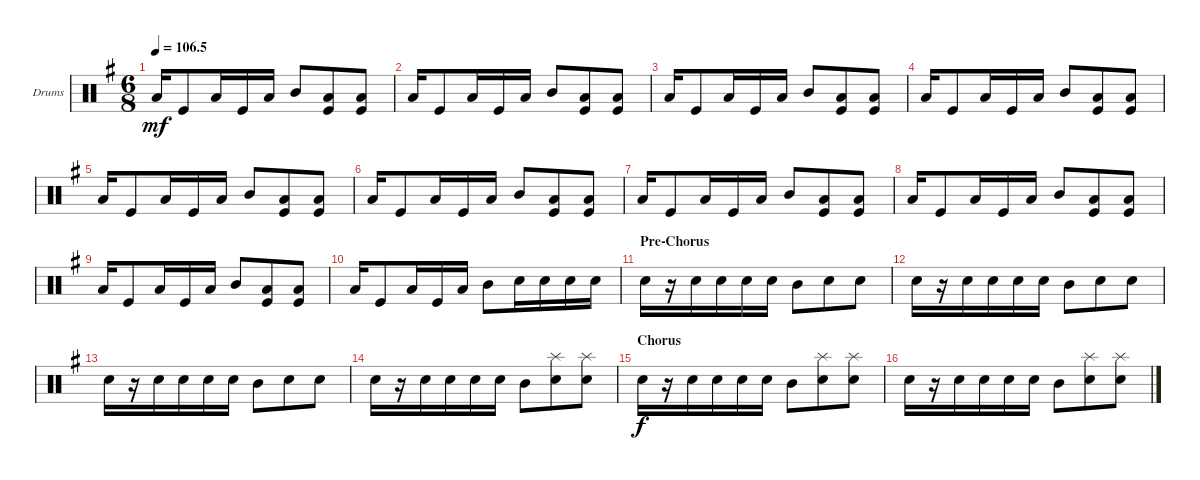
\defaultSystemsLayout 4
\bracketExtendMode groupsimilarinstruments
\firstSystemTrackNameOrientation horizontal
\otherSystemsTrackNameOrientation horizontal
\track ("Drumkit" "Drums") {instrument percussion}
\staff {score}
\articulation defaults
\ts (6 8)
\tempo
106.5
\accidentals auto
\clef neutral
\ottava regular
\simile none
\scale
0.333333
\ks g "Low Tom (hit)".16{dy mf} "Kick (hit)".8 "Low Tom (hit)".16 "Kick (hit)".16 "Low Tom (hit)".16 "Mid Tom (hit)".8
("Low Tom (hit)" "Kick (hit)").8 ("Low Tom (hit)" "Kick (hit)").8 |
\scale
0.333333 "Low Tom (hit)".16 "Kick (hit)".8 "Low Tom (hit)".16 "Kick (hit)".16 "Low Tom (hit)".16 "Mid Tom (hit)".8 ("Low Tom (hit)" "Kick (hit)").8 ("Low Tom (hit)" "Kick (hit)").8 |
\scale
0.333333 "Low Tom (hit)".16 "Kick (hit)".8 "Low Tom (hit)".16 "Kick (hit)".16 "Low Tom (hit)".16 "Mid Tom (hit)".8 ("Low Tom (hit)" "Kick (hit)").8 ("Low Tom (hit)" "Kick (hit)").8 |
\scale
0.333333 "Low Tom (hit)".16 "Kick (hit)".8 "Low Tom (hit)".16 "Kick (hit)".16 "Low Tom (hit)".16 "Mid Tom (hit)".8 ("Low Tom (hit)" "Kick (hit)").8 ("Low Tom (hit)" "Kick (hit)").8 |
\scale
0.333333 "Low Tom (hit)".16 "Kick (hit)".8 "Low Tom (hit)".16 "Kick (hit)".16 "Low Tom (hit)".16 "Mid Tom (hit)".8 ("Low Tom (hit)" "Kick (hit)").8 ("Low Tom (hit)" "Kick (hit)").8 |
\scale
0.333333 "Low Tom (hit)".16 "Kick (hit)".8 "Low Tom (hit)".16 "Kick (hit)".16 "Low Tom (hit)".16 "Mid Tom (hit)".8 ("Low Tom (hit)" "Kick (hit)").8 ("Low Tom (hit)" "Kick (hit)").8 |
\scale
0.333333 "Low Tom (hit)".16 "Kick (hit)".8 "Low Tom (hit)".16 "Kick (hit)".16 "Low Tom (hit)".16 "Mid Tom (hit)".8 ("Low Tom (hit)" "Kick (hit)").8 ("Low Tom (hit)" "Kick (hit)").8 |
\scale
0.333333 "Low Tom (hit)".16 "Kick (hit)".8 "Low Tom (hit)".16 "Kick (hit)".16 "Low Tom (hit)".16 "Mid Tom (hit)".8 ("Low Tom (hit)" "Kick (hit)").8 ("Low Tom (hit)" "Kick (hit)").8 |
\scale
0.333333 "Low Tom (hit)".16 "Kick (hit)".8 "Low Tom (hit)".16 "Kick (hit)".16 "Low Tom (hit)".16 "Mid Tom (hit)".8 ("Low Tom (hit)" "Kick (hit)").8 ("Low Tom (hit)" "Kick (hit)").8 |
\scale
0.333333 "Low Tom (hit)".16 "Kick (hit)".8 "Low Tom (hit)".16 "Kick (hit)".16 "Low Tom (hit)".16 "Mid Tom (hit)".8 "Snare (hit) 2".16 "Snare (hit) 2".16 "Snare (hit) 2".16 "Snare (hit) 2".16 |
\section ("" "Pre-Chorus")
\scale
0.333333 "Snare (hit) 2".16 r.16 "Snare (hit) 2".16 "Snare (hit) 2".16 "Snare (hit) 2".16 "Snare (hit) 2".16 "Mid Tom (hit)".8 "Snare (hit) 2".8 "Snare (hit) 2".8 |
\scale
0.333333 "Snare (hit) 2".16 r.16 "Snare (hit) 2".16 "Snare (hit) 2".16 "Snare (hit) 2".16 "Snare (hit) 2".16 "Mid Tom (hit)".8 "Snare (hit) 2".8 "Snare (hit) 2".8 |
\scale
0.333333 "Snare (hit) 2".16 r.16 "Snare (hit) 2".16 "Snare (hit) 2".16 "Snare (hit) 2".16 "Snare (hit) 2".16 "Mid Tom (hit)".8 "Snare (hit) 2".8 "Snare (hit) 2".8 |
\scale
0.333333 "Snare (hit) 2".16 r.16 "Snare (hit) 2".16 "Snare (hit) 2".16 "Snare (hit) 2".16 "Snare (hit) 2".16 "Mid Tom (hit)".8 ("Snare (hit) 2" "Splash (hit)").8 ("Snare (hit) 2" "Splash (hit)").8 |
\section ("" "Chorus")
\scale
0.333333 "Snare (hit) 2".16{dy f} r.16 "Snare (hit) 2".16 "Snare (hit) 2".16 "Snare (hit) 2".16 "Snare (hit) 2".16 "Mid Tom (hit)".8 ("Snare (hit) 2" "Splash (hit)").8 ("Snare (hit) 2" "Splash (hit)").8 |
\scale
0.333333 "Snare (hit) 2".16 r.16 "Snare (hit) 2".16 "Snare (hit) 2".16 "Snare (hit) 2".16 "Snare (hit) 2".16 "Mid Tom (hit)".8 ("Snare (hit) 2" "Splash (hit)").8 ("Snare (hit) 2" "Splash (hit)").8
